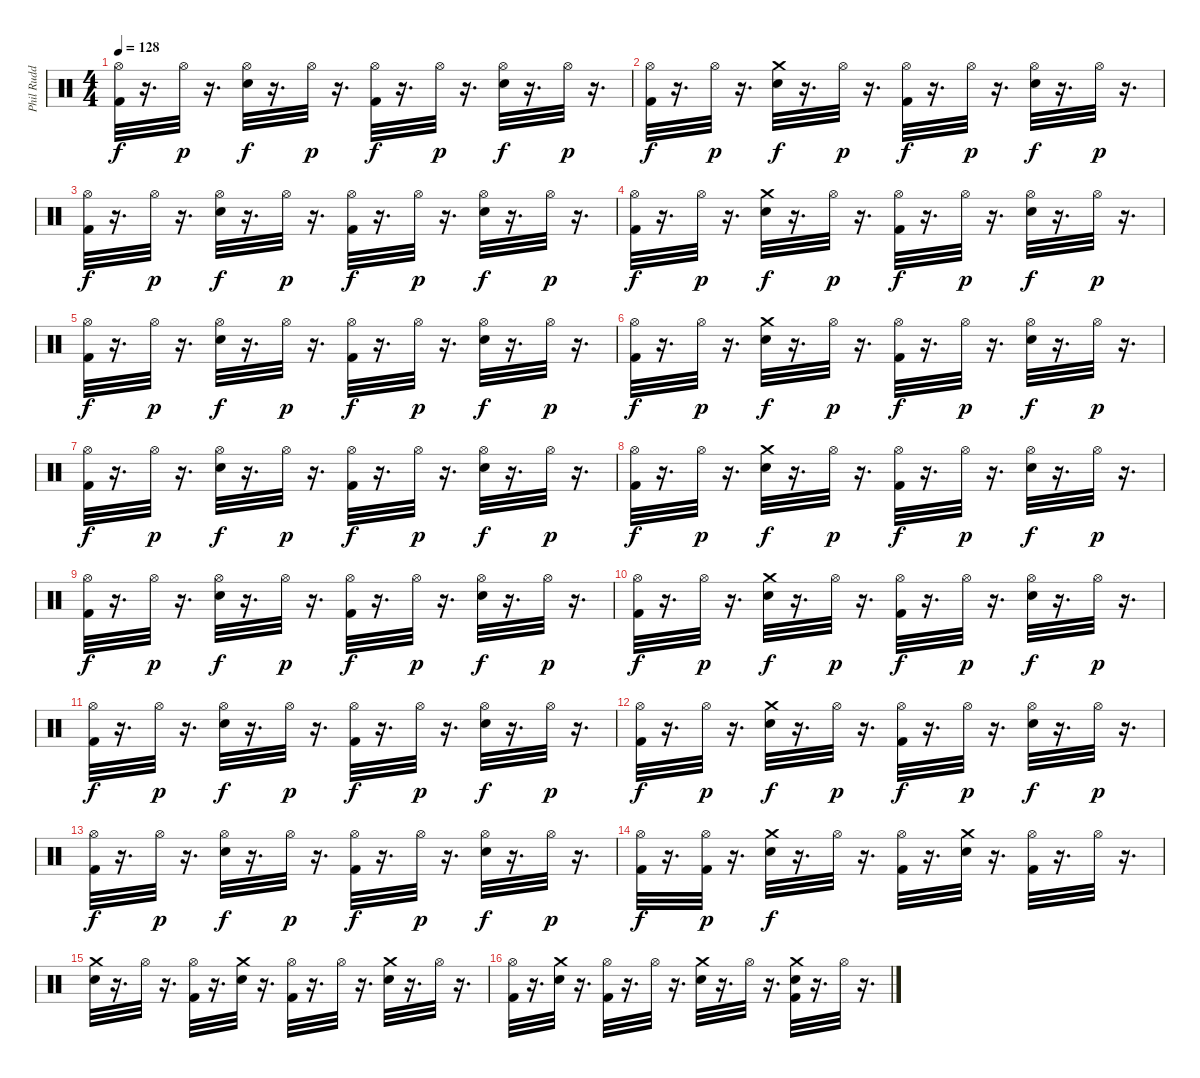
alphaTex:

\track ("Phil Rudd" "Phil Rudd") {instrument percussion}
\staff {score}
\articulation defaults
\ts (4 4)
\tempo 128
\clef neutral
\ks c
("Hi-Hat (open)" "Kick (hit) 2").32{dy f} r.16{d} "Hi-Hat (open)".32{dy p} r.16{d} ("Hi-Hat (open)" "Electric Snare (hit)").32{dy f} r.16{d} "Hi-Hat (open)".32{dy p} r.16{d} ("Hi-Hat (open)" "Kick (hit) 2").32{dy f} r.16{d} "Hi-Hat (open)".32{dy p} r.16{d} ("Hi-Hat (open)" "Electric Snare (hit)").32{dy f} r.16{d} "Hi-Hat (open)".32{dy p} r.16{d} |
("Hi-Hat (open)" "Kick (hit) 2").32{dy f} r.16{d} "Hi-Hat (open)".32{dy p} r.16{d} ("Crash medium (hit)" "Electric Snare (hit)").32{dy f} r.16{d} "Hi-Hat (open)".32{dy p} r.16{d} ("Hi-Hat (open)" "Kick (hit) 2").32{dy f} r.16{d} "Hi-Hat (open)".32{dy p} r.16{d} ("Hi-Hat (open)" "Electric Snare (hit)").32{dy f} r.16{d} "Hi-Hat (open)".32{dy p} r.16{d} |
("Hi-Hat (open)" "Kick (hit) 2").32{dy f} r.16{d} "Hi-Hat (open)".32{dy p} r.16{d} ("Hi-Hat (open)" "Electric Snare (hit)").32{dy f} r.16{d} "Hi-Hat (open)".32{dy p} r.16{d} ("Hi-Hat (open)" "Kick (hit) 2").32{dy f} r.16{d} "Hi-Hat (open)".32{dy p} r.16{d} ("Hi-Hat (open)" "Electric Snare (hit)").32{dy f} r.16{d} "Hi-Hat (open)".32{dy p} r.16{d} |
("Hi-Hat (open)" "Kick (hit) 2").32{dy f} r.16{d} "Hi-Hat (open)".32{dy p} r.16{d} ("Crash medium (hit)" "Electric Snare (hit)").32{dy f} r.16{d} "Hi-Hat (open)".32{dy p} r.16{d} ("Hi-Hat (open)" "Kick (hit) 2").32{dy f} r.16{d} "Hi-Hat (open)".32{dy p} r.16{d} ("Hi-Hat (open)" "Electric Snare (hit)").32{dy f} r.16{d} "Hi-Hat (open)".32{dy p} r.16{d} |
("Hi-Hat (open)" "Kick (hit) 2").32{dy f} r.16{d} "Hi-Hat (open)".32{dy p} r.16{d} ("Hi-Hat (open)" "Electric Snare (hit)").32{dy f} r.16{d} "Hi-Hat (open)".32{dy p} r.16{d} ("Hi-Hat (open)" "Kick (hit) 2").32{dy f} r.16{d} "Hi-Hat (open)".32{dy p} r.16{d} ("Hi-Hat (open)" "Electric Snare (hit)").32{dy f} r.16{d} "Hi-Hat (open)".32{dy p} r.16{d} |
("Hi-Hat (open)" "Kick (hit) 2").32{dy f} r.16{d} "Hi-Hat (open)".32{dy p} r.16{d} ("Crash medium (hit)" "Electric Snare (hit)").32{dy f} r.16{d} "Hi-Hat (open)".32{dy p} r.16{d} ("Hi-Hat (open)" "Kick (hit) 2").32{dy f} r.16{d} "Hi-Hat (open)".32{dy p} r.16{d} ("Hi-Hat (open)" "Electric Snare (hit)").32{dy f} r.16{d} "Hi-Hat (open)".32{dy p} r.16{d} |
("Hi-Hat (open)" "Kick (hit) 2").32{dy f} r.16{d} "Hi-Hat (open)".32{dy p} r.16{d} ("Hi-Hat (open)" "Electric Snare (hit)").32{dy f} r.16{d} "Hi-Hat (open)".32{dy p} r.16{d} ("Hi-Hat (open)" "Kick (hit) 2").32{dy f} r.16{d} "Hi-Hat (open)".32{dy p} r.16{d} ("Hi-Hat (open)" "Electric Snare (hit)").32{dy f} r.16{d} "Hi-Hat (open)".32{dy p} r.16{d} |
("Hi-Hat (open)" "Kick (hit) 2").32{dy f} r.16{d} "Hi-Hat (open)".32{dy p} r.16{d} ("Crash medium (hit)" "Electric Snare (hit)").32{dy f} r.16{d} "Hi-Hat (open)".32{dy p} r.16{d} ("Hi-Hat (open)" "Kick (hit) 2").32{dy f} r.16{d} "Hi-Hat (open)".32{dy p} r.16{d} ("Hi-Hat (open)" "Electric Snare (hit)").32{dy f} r.16{d} "Hi-Hat (open)".32{dy p} r.16{d} |
("Hi-Hat (open)" "Kick (hit) 2").32{dy f} r.16{d} "Hi-Hat (open)".32{dy p} r.16{d} ("Hi-Hat (open)" "Electric Snare (hit)").32{dy f} r.16{d} "Hi-Hat (open)".32{dy p} r.16{d} ("Hi-Hat (open)" "Kick (hit) 2").32{dy f} r.16{d} "Hi-Hat (open)".32{dy p} r.16{d} ("Hi-Hat (open)" "Electric Snare (hit)").32{dy f} r.16{d} "Hi-Hat (open)".32{dy p} r.16{d} |
("Hi-Hat (open)" "Kick (hit) 2").32{dy f} r.16{d} "Hi-Hat (open)".32{dy p} r.16{d} ("Crash medium (hit)" "Electric Snare (hit)").32{dy f} r.16{d} "Hi-Hat (open)".32{dy p} r.16{d} ("Hi-Hat (open)" "Kick (hit) 2").32{dy f} r.16{d} "Hi-Hat (open)".32{dy p} r.16{d} ("Hi-Hat (open)" "Electric Snare (hit)").32{dy f} r.16{d} "Hi-Hat (open)".32{dy p} r.16{d} |
("Hi-Hat (open)" "Kick (hit) 2").32{dy f} r.16{d} "Hi-Hat (open)".32{dy p} r.16{d} ("Hi-Hat (open)" "Electric Snare (hit)").32{dy f} r.16{d} "Hi-Hat (open)".32{dy p} r.16{d} ("Hi-Hat (open)" "Kick (hit) 2").32{dy f} r.16{d} "Hi-Hat (open)".32{dy p} r.16{d} ("Hi-Hat (open)" "Electric Snare (hit)").32{dy f} r.16{d} "Hi-Hat (open)".32{dy p} r.16{d} |
("Hi-Hat (open)" "Kick (hit) 2").32{dy f} r.16{d} "Hi-Hat (open)".32{dy p} r.16{d} ("Crash medium (hit)" "Electric Snare (hit)").32{dy f} r.16{d} "Hi-Hat (open)".32{dy p} r.16{d} ("Hi-Hat (open)" "Kick (hit) 2").32{dy f} r.16{d} "Hi-Hat (open)".32{dy p} r.16{d} ("Hi-Hat (open)" "Electric Snare (hit)").32{dy f} r.16{d} "Hi-Hat (open)".32{dy p} r.16{d} |
("Hi-Hat (open)" "Kick (hit) 2").32{dy f} r.16{d} "Hi-Hat (open)".32{dy p} r.16{d} ("Hi-Hat (open)" "Electric Snare (hit)").32{dy f} r.16{d} "Hi-Hat (open)".32{dy p} r.16{d} ("Hi-Hat (open)" "Kick (hit) 2").32{dy f} r.16{d} "Hi-Hat (open)".32{dy p} r.16{d} ("Hi-Hat (open)" "Electric Snare (hit)").32{dy f} r.16{d} "Hi-Hat (open)".32{dy p} r.16{d} |
("Hi-Hat (open)" "Kick (hit) 2").32{dy f} r.16{d} ("Kick (hit) 2" "Hi-Hat (open)").32{dy p} r.16{d} ("Crash medium (hit)" "Electric Snare (hit)").32{dy f} r.16{d} "Hi-Hat (open)".32 r.16{d} ("Hi-Hat (open)" "Kick (hit) 2").32 r.16{d} ("Crash medium (hit)" "Electric Snare (hit)").32 r.16{d} ("Hi-Hat (open)" "Kick (hit) 2").32 r.16{d} "Hi-Hat (open)".32 r.16{d} |
("Crash medium (hit)" "Electric Snare (hit)").32 r.16{d} "Hi-Hat (open)".32 r.16{d} ("Hi-Hat (open)" "Kick (hit) 2").32 r.16{d} ("Crash medium (hit)" "Electric Snare (hit)").32 r.16{d} ("Hi-Hat (open)" "Kick (hit) 2").32 r.16{d} "Hi-Hat (open)".32 r.16{d} ("Crash medium (hit)" "Electric Snare (hit)").32 r.16{d} "Hi-Hat (open)".32 r.16{d} |
("Hi-Hat (open)" "Kick (hit) 2").32 r.16{d} ("Crash medium (hit)" "Electric Snare (hit)").32 r.16{d} ("Hi-Hat (open)" "Kick (hit) 2").32 r.16{d} "Hi-Hat (open)".32 r.16{d} ("Crash medium (hit)" "Electric Snare (hit)").32 r.16{d} "Hi-Hat (open)".32 r.16{d} ("Crash medium (hit)" "Kick (hit) 2" "Electric Snare (hit)").32 r.16{d} "Hi-Hat (open)".32 r.16{d}
